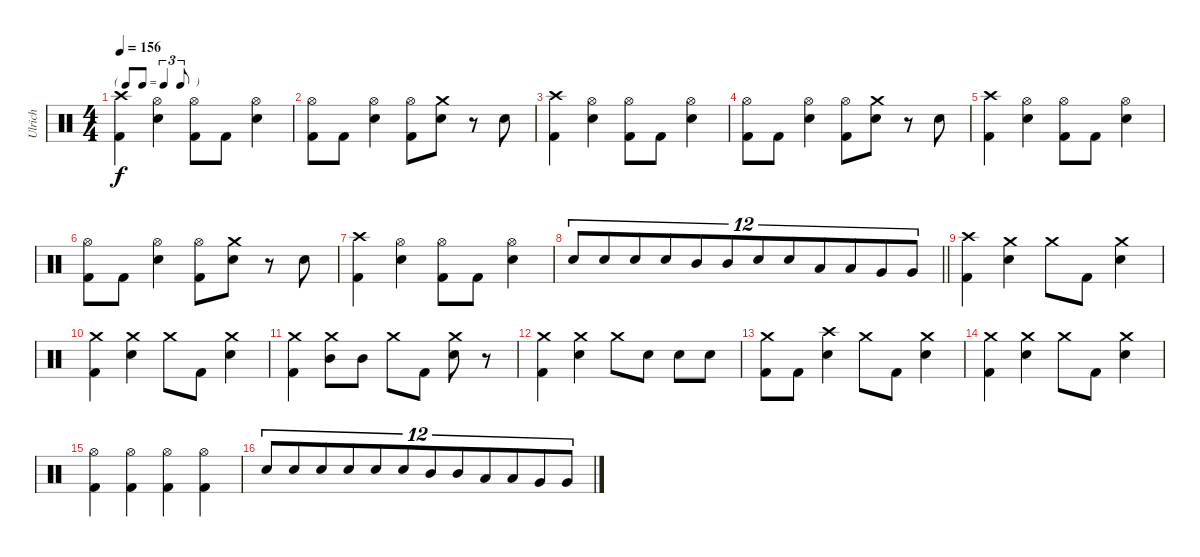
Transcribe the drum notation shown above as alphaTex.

\track ("Ulrich" "Ulrich") {instrument percussion}
\staff {score}
\articulation defaults
\ts (4 4)
\tf triplet8th
\tempo 156
\clef neutral
\ks c
("Crash high (hit)" "Kick (hit) 2").4{dy f} ("Hi-Hat (open)" "Electric Snare (hit)").4 ("Hi-Hat (open)" "Kick (hit) 2").8 "Kick (hit) 2".8 ("Hi-Hat (open)" "Electric Snare (hit)").4 |
("Hi-Hat (open)" "Kick (hit) 2").8 "Kick (hit) 2".8 ("Hi-Hat (open)" "Electric Snare (hit)").4 ("Hi-Hat (open)" "Kick (hit) 2").8 ("Crash medium (hit)" "Electric Snare (hit)").8 r.8 "Electric Snare (hit)".8 |
("Crash high (hit)" "Kick (hit) 2").4 ("Hi-Hat (open)" "Electric Snare (hit)").4 ("Hi-Hat (open)" "Kick (hit) 2").8 "Kick (hit) 2".8 ("Hi-Hat (open)" "Electric Snare (hit)").4 |
("Hi-Hat (open)" "Kick (hit) 2").8 "Kick (hit) 2".8 ("Hi-Hat (open)" "Electric Snare (hit)").4 ("Hi-Hat (open)" "Kick (hit) 2").8 ("Crash medium (hit)" "Electric Snare (hit)").8 r.8 "Electric Snare (hit)".8 |
("Crash high (hit)" "Kick (hit) 2").4 ("Hi-Hat (open)" "Electric Snare (hit)").4 ("Hi-Hat (open)" "Kick (hit) 2").8 "Kick (hit) 2".8 ("Hi-Hat (open)" "Electric Snare (hit)").4 |
("Hi-Hat (open)" "Kick (hit) 2").8 "Kick (hit) 2".8 ("Hi-Hat (open)" "Electric Snare (hit)").4 ("Hi-Hat (open)" "Kick (hit) 2").8 ("Crash medium (hit)" "Electric Snare (hit)").8 r.8 "Electric Snare (hit)".8 |
("Crash high (hit)" "Kick (hit) 2").4 ("Hi-Hat (open)" "Electric Snare (hit)").4 ("Hi-Hat (open)" "Kick (hit) 2").8 "Kick (hit) 2".8 ("Hi-Hat (open)" "Electric Snare (hit)").4 |
\barLineRight lightlight "Electric Snare (hit)".8{tu (12 8)} "Electric Snare (hit)".8{tu (12 8)} "Electric Snare (hit)".8{tu (12 8)} "Electric Snare (hit)".8{tu (12 8)} "Mid Tom (hit)".8{tu (12 8)} "Mid Tom (hit)".8{tu (12 8)} "Electric Snare (hit)".8{tu (12 8)} "Electric Snare (hit)".8{tu (12 8)} "Low Tom (hit)".8{tu (12 8)} "Low Tom (hit)".8{tu (12 8)} "Very Low Tom (hit)".8{tu (12 8)} "Very Low Tom (hit)".8{tu (12 8)}
|
\section ("" "")
("Crash high (hit)" "Kick (hit) 2").4 ("Crash medium (hit)" "Electric Snare (hit)").4 "Crash medium (hit)".8 "Kick (hit) 2".8 ("Crash medium (hit)" "Electric Snare (hit)").4 |
("Crash medium (hit)" "Kick (hit) 2").4 ("Crash medium (hit)" "Electric Snare (hit)").4 "Crash medium (hit)".8 "Kick (hit) 2".8 ("Crash medium (hit)" "Electric Snare (hit)").4 |
("Crash medium (hit)" "Kick (hit) 2").4 ("Crash medium (hit)" "Mid Tom (hit)").8 "Mid Tom (hit)".8 "Crash medium (hit)".8 "Kick (hit) 2".8 ("Crash medium (hit)" "Electric Snare (hit)").8 r.8 |
("Crash medium (hit)" "Kick (hit) 2").4 ("Crash medium (hit)" "Electric Snare (hit)").4 "Crash medium (hit)".8 "Electric Snare (hit)".8 "Electric Snare (hit)".8 "Electric Snare (hit)".8 |
("Crash medium (hit)" "Kick (hit) 2").8 "Kick (hit) 2".8 ("Crash high (hit)" "Electric Snare (hit)").4 "Crash medium (hit)".8 "Kick (hit) 2".8 ("Crash medium (hit)" "Electric Snare (hit)").4 |
("Crash medium (hit)" "Kick (hit) 2").4 ("Crash medium (hit)" "Electric Snare (hit)").4 "Crash medium (hit)".8 "Kick (hit) 2".8 ("Crash medium (hit)" "Electric Snare (hit)").4 |
("Hi-Hat (open)" "Kick (hit) 2").4 ("Hi-Hat (open)" "Kick (hit) 2").4 ("Hi-Hat (open)" "Kick (hit) 2").4 ("Hi-Hat (open)" "Kick (hit) 2").4 |
"Electric Snare (hit)".8{tu (12 8)} "Electric Snare (hit)".8{tu (12 8)} "Electric Snare (hit)".8{tu (12 8)} "Electric Snare (hit)".8{tu (12 8)} "Electric Snare (hit)".8{tu (12 8)} "Electric Snare (hit)".8{tu (12 8)} "Mid Tom (hit)".8{tu (12 8)} "Mid Tom (hit)".8{tu (12 8)} "Low Tom (hit)".8{tu (12 8)} "Low Tom (hit)".8{tu (12 8)} "Very Low Tom (hit)".8{tu (12 8)} "Very Low Tom (hit)".8{tu (12 8)}
